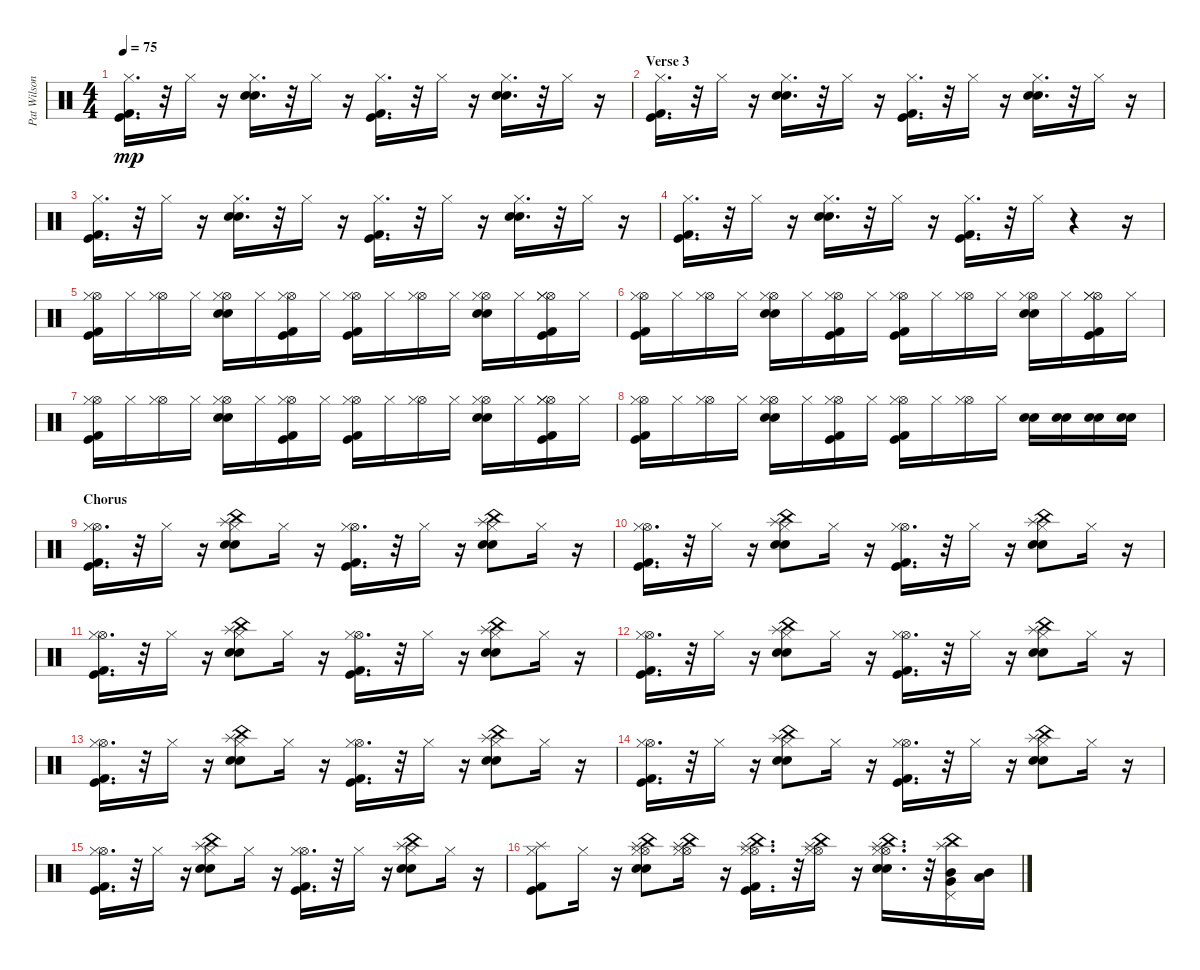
\track ("Pat Wilson - Drums" "Pat Wilson") {instrument percussion}
\staff {score}
\articulation defaults
\ts (4 4)
\tempo 75
\clef neutral
\ks c
("Kick (hit) 2" "Kick (hit)" "Hi-Hat (closed)").16{d dy mp} r.32 "Hi-Hat (closed)".16 r.16 ("Snare (hit) 2" "Electric Snare (hit)" "Hi-Hat (closed)").16{d} r.32 "Hi-Hat (closed)".16 r.16 ("Kick (hit) 2" "Kick (hit)" "Hi-Hat (closed)").16{d} r.32 "Hi-Hat (closed)".16 r.16 ("Snare (hit) 2" "Electric Snare (hit)" "Hi-Hat (closed)").16{d} r.32 "Hi-Hat (closed)".16 r.16 |
\section ("" "Verse 3")
("Kick (hit) 2" "Kick (hit)" "Hi-Hat (closed)").16{d} r.32 "Hi-Hat (closed)".16 r.16 ("Snare (hit) 2" "Electric Snare (hit)" "Hi-Hat (closed)").16{d} r.32 "Hi-Hat (closed)".16 r.16 ("Kick (hit) 2" "Kick (hit)" "Hi-Hat (closed)").16{d} r.32 "Hi-Hat (closed)".16 r.16 ("Snare (hit) 2" "Electric Snare (hit)" "Hi-Hat (closed)").16{d} r.32 "Hi-Hat (closed)".16 r.16 |
("Kick (hit) 2" "Kick (hit)" "Hi-Hat (closed)").16{d} r.32 "Hi-Hat (closed)".16 r.16 ("Snare (hit) 2" "Electric Snare (hit)" "Hi-Hat (closed)").16{d} r.32 "Hi-Hat (closed)".16 r.16 ("Kick (hit) 2" "Kick (hit)" "Hi-Hat (closed)").16{d} r.32 "Hi-Hat (closed)".16 r.16 ("Snare (hit) 2" "Electric Snare (hit)" "Hi-Hat (closed)").16{d} r.32 "Hi-Hat (closed)".16 r.16 |
("Kick (hit) 2" "Kick (hit)" "Hi-Hat (closed)").16{d} r.32 "Hi-Hat (closed)".16 r.16 ("Snare (hit) 2" "Electric Snare (hit)" "Hi-Hat (closed)").16{d} r.32 "Hi-Hat (closed)".16 r.16 ("Kick (hit) 2" "Kick (hit)" "Hi-Hat (closed)").16{d} r.32 "Hi-Hat (closed)".16 r.4 r.16 |
("Kick (hit) 2" "Kick (hit)" "Hi-Hat (open)" "Hi-Hat (closed)").16 "Hi-Hat (closed)".16 ("Hi-Hat (open)" "Hi-Hat (closed)").16 "Hi-Hat (closed)".16 ("Snare (hit) 2" "Electric Snare (hit)" "Hi-Hat (open)" "Hi-Hat (closed)").16 "Hi-Hat (closed)".16 ("Kick (hit) 2" "Kick (hit)" "Hi-Hat (open)" "Hi-Hat (closed)").16 "Hi-Hat (closed)".16 ("Kick (hit) 2" "Kick (hit)" "Hi-Hat (open)" "Hi-Hat (closed)").16 "Hi-Hat (closed)".16 ("Hi-Hat (open)" "Hi-Hat (closed)").16 "Hi-Hat (closed)".16 ("Snare (hit) 2" "Electric Snare (hit)" "Hi-Hat (open)" "Hi-Hat (closed)").16 "Hi-Hat (closed)".16 ("Kick (hit) 2" "Kick (hit)" "Hi-Hat (open)" "Hi-Hat (closed)" "Hi-Hat (closed)").16 "Hi-Hat (closed)".16 |
("Kick (hit) 2" "Kick (hit)" "Hi-Hat (open)" "Hi-Hat (closed)").16 "Hi-Hat (closed)".16 ("Hi-Hat (open)" "Hi-Hat (closed)").16 "Hi-Hat (closed)".16 ("Snare (hit) 2" "Electric Snare (hit)" "Hi-Hat (open)" "Hi-Hat (closed)").16 "Hi-Hat (closed)".16 ("Kick (hit) 2" "Kick (hit)" "Hi-Hat (open)" "Hi-Hat (closed)").16 "Hi-Hat (closed)".16 ("Kick (hit) 2" "Kick (hit)" "Hi-Hat (open)" "Hi-Hat (closed)").16 "Hi-Hat (closed)".16 ("Hi-Hat (open)" "Hi-Hat (closed)").16 "Hi-Hat (closed)".16 ("Snare (hit) 2" "Electric Snare (hit)" "Hi-Hat (open)" "Hi-Hat (closed)").16 "Hi-Hat (closed)".16 ("Kick (hit) 2" "Kick (hit)" "Hi-Hat (open)" "Hi-Hat (closed)" "Hi-Hat (closed)").16 "Hi-Hat (closed)".16 |
("Kick (hit) 2" "Kick (hit)" "Hi-Hat (open)" "Hi-Hat (closed)").16 "Hi-Hat (closed)".16 ("Hi-Hat (open)" "Hi-Hat (closed)").16 "Hi-Hat (closed)".16 ("Snare (hit) 2" "Electric Snare (hit)" "Hi-Hat (open)" "Hi-Hat (closed)").16 "Hi-Hat (closed)".16 ("Kick (hit) 2" "Kick (hit)" "Hi-Hat (open)" "Hi-Hat (closed)").16 "Hi-Hat (closed)".16 ("Kick (hit) 2" "Kick (hit)" "Hi-Hat (open)" "Hi-Hat (closed)").16 "Hi-Hat (closed)".16 ("Hi-Hat (open)" "Hi-Hat (closed)").16 "Hi-Hat (closed)".16 ("Snare (hit) 2" "Electric Snare (hit)" "Hi-Hat (open)" "Hi-Hat (closed)").16 "Hi-Hat (closed)".16 ("Kick (hit) 2" "Kick (hit)" "Hi-Hat (open)" "Hi-Hat (closed)" "Hi-Hat (closed)").16 "Hi-Hat (closed)".16 |
("Kick (hit) 2" "Kick (hit)" "Hi-Hat (open)" "Hi-Hat (closed)").16 "Hi-Hat (closed)".16 ("Hi-Hat (open)" "Hi-Hat (closed)").16 "Hi-Hat (closed)".16 ("Snare (hit) 2" "Electric Snare (hit)" "Hi-Hat (open)" "Hi-Hat (closed)").16 "Hi-Hat (closed)".16 ("Kick (hit) 2" "Kick (hit)" "Hi-Hat (open)" "Hi-Hat (closed)").16 "Hi-Hat (closed)".16 ("Kick (hit) 2" "Kick (hit)" "Hi-Hat (open)" "Hi-Hat (closed)").16 "Hi-Hat (closed)".16 ("Hi-Hat (open)" "Hi-Hat (closed)").16 "Hi-Hat (closed)".16 ("Electric Snare (hit)" "Snare (hit) 2").16 ("Electric Snare (hit)" "Snare (hit) 2").16 ("Electric Snare (hit)" "Snare (hit) 2").16 ("Electric Snare (hit)" "Snare (hit) 2").16 |
\section ("" "Chorus")
("Hi-Hat (open)" "Kick (hit) 2" "Kick (hit)" "Hi-Hat (closed)").16{d} r.32 "Hi-Hat (closed)".16 r.16 ("Splash (hit)" "China (hit)" "Snare (hit) 2" "Electric Snare (hit)" "Hi-Hat (closed)").8 "Hi-Hat (closed)".16 r.16 ("Hi-Hat (open)" "Kick (hit) 2" "Kick (hit)" "Hi-Hat (closed)").16{d} r.32 "Hi-Hat (closed)".16 r.16 ("Splash (hit)" "China (hit)" "Snare (hit) 2" "Electric Snare (hit)" "Hi-Hat (closed)").8 "Hi-Hat (closed)".16 r.16 |
("Hi-Hat (open)" "Kick (hit) 2" "Kick (hit)" "Hi-Hat (closed)").16{d} r.32 "Hi-Hat (closed)".16 r.16 ("Splash (hit)" "China (hit)" "Snare (hit) 2" "Electric Snare (hit)" "Hi-Hat (closed)").8 "Hi-Hat (closed)".16 r.16 ("Hi-Hat (open)" "Kick (hit) 2" "Kick (hit)" "Hi-Hat (closed)").16{d} r.32 "Hi-Hat (closed)".16 r.16 ("Splash (hit)" "China (hit)" "Snare (hit) 2" "Electric Snare (hit)" "Hi-Hat (closed)").8 "Hi-Hat (closed)".16 r.16 |
("Hi-Hat (open)" "Kick (hit) 2" "Kick (hit)" "Hi-Hat (closed)").16{d} r.32 "Hi-Hat (closed)".16 r.16 ("Splash (hit)" "China (hit)" "Snare (hit) 2" "Electric Snare (hit)" "Hi-Hat (closed)").8 "Hi-Hat (closed)".16 r.16 ("Hi-Hat (open)" "Kick (hit) 2" "Kick (hit)" "Hi-Hat (closed)").16{d} r.32 "Hi-Hat (closed)".16 r.16 ("Splash (hit)" "China (hit)" "Snare (hit) 2" "Electric Snare (hit)" "Hi-Hat (closed)").8 "Hi-Hat (closed)".16 r.16 |
("Hi-Hat (open)" "Kick (hit) 2" "Kick (hit)" "Hi-Hat (closed)").16{d} r.32 "Hi-Hat (closed)".16 r.16 ("Splash (hit)" "China (hit)" "Snare (hit) 2" "Electric Snare (hit)" "Hi-Hat (closed)").8 "Hi-Hat (closed)".16 r.16 ("Hi-Hat (open)" "Kick (hit) 2" "Kick (hit)" "Hi-Hat (closed)").16{d} r.32 "Hi-Hat (closed)".16 r.16 ("Splash (hit)" "China (hit)" "Snare (hit) 2" "Electric Snare (hit)" "Hi-Hat (closed)").8 "Hi-Hat (closed)".16 r.16 |
("Hi-Hat (open)" "Kick (hit) 2" "Kick (hit)" "Hi-Hat (closed)").16{d} r.32 "Hi-Hat (closed)".16 r.16 ("Splash (hit)" "China (hit)" "Snare (hit) 2" "Electric Snare (hit)" "Hi-Hat (closed)").8 "Hi-Hat (closed)".16 r.16 ("Hi-Hat (open)" "Kick (hit) 2" "Kick (hit)" "Hi-Hat (closed)").16{d} r.32 "Hi-Hat (closed)".16 r.16 ("Splash (hit)" "China (hit)" "Snare (hit) 2" "Electric Snare (hit)" "Hi-Hat (closed)").8 "Hi-Hat (closed)".16 r.16 |
("Hi-Hat (open)" "Kick (hit) 2" "Kick (hit)" "Hi-Hat (closed)").16{d} r.32 "Hi-Hat (closed)".16 r.16 ("Splash (hit)" "China (hit)" "Snare (hit) 2" "Electric Snare (hit)" "Hi-Hat (closed)").8 "Hi-Hat (closed)".16 r.16 ("Hi-Hat (open)" "Kick (hit) 2" "Kick (hit)" "Hi-Hat (closed)").16{d} r.32 "Hi-Hat (closed)".16 r.16 ("Splash (hit)" "China (hit)" "Snare (hit) 2" "Electric Snare (hit)" "Hi-Hat (closed)").8 "Hi-Hat (closed)".16 r.16 |
("Hi-Hat (open)" "Kick (hit) 2" "Kick (hit)" "Hi-Hat (closed)").16{d} r.32 "Hi-Hat (closed)".16 r.16 ("Splash (hit)" "China (hit)" "Snare (hit) 2" "Electric Snare (hit)" "Hi-Hat (closed)").8 "Hi-Hat (closed)".16 r.16 ("Kick (hit) 2" "Kick (hit)" "Hi-Hat (open)" "Hi-Hat (closed)").16{d} r.32 "Hi-Hat (closed)".16 r.16 ("Splash (hit)" "China (hit)" "Snare (hit) 2" "Electric Snare (hit)" "Hi-Hat (closed)").8 "Hi-Hat (closed)".16 r.16 |
("Splash (hit)" "Kick (hit) 2" "Kick (hit)" "Hi-Hat (closed)").8 "Hi-Hat (closed)".16 r.16 ("China (hit)" "Splash (hit)" "Snare (hit) 2" "Electric Snare (hit)" "Hi-Hat (open)" "Hi-Hat (closed)").8 ("Hi-Hat (open)" "Hi-Hat (closed)" "China (hit)" "Splash (hit)").16 r.16 ("Kick (hit) 2" "Kick (hit)" "Hi-Hat (open)" "Hi-Hat (closed)" "China (hit)" "Splash (hit)").16{d} r.32 ("Hi-Hat (open)" "Hi-Hat (closed)" "China (hit)" "Splash (hit)").16 r.16 ("Snare (hit) 2" "Electric Snare (hit)" "Hi-Hat (open)" "Hi-Hat (closed)" "China (hit)" "Splash (hit)").16{d} r.32 ("Mid Tom (hit)" "Pedal Hi-Hat (hit)" "Very Low Tom (hit)" "China (hit)" "Splash (hit)").16 ("Low Floor Tom (hit)" "Mid Tom (hit)").16
